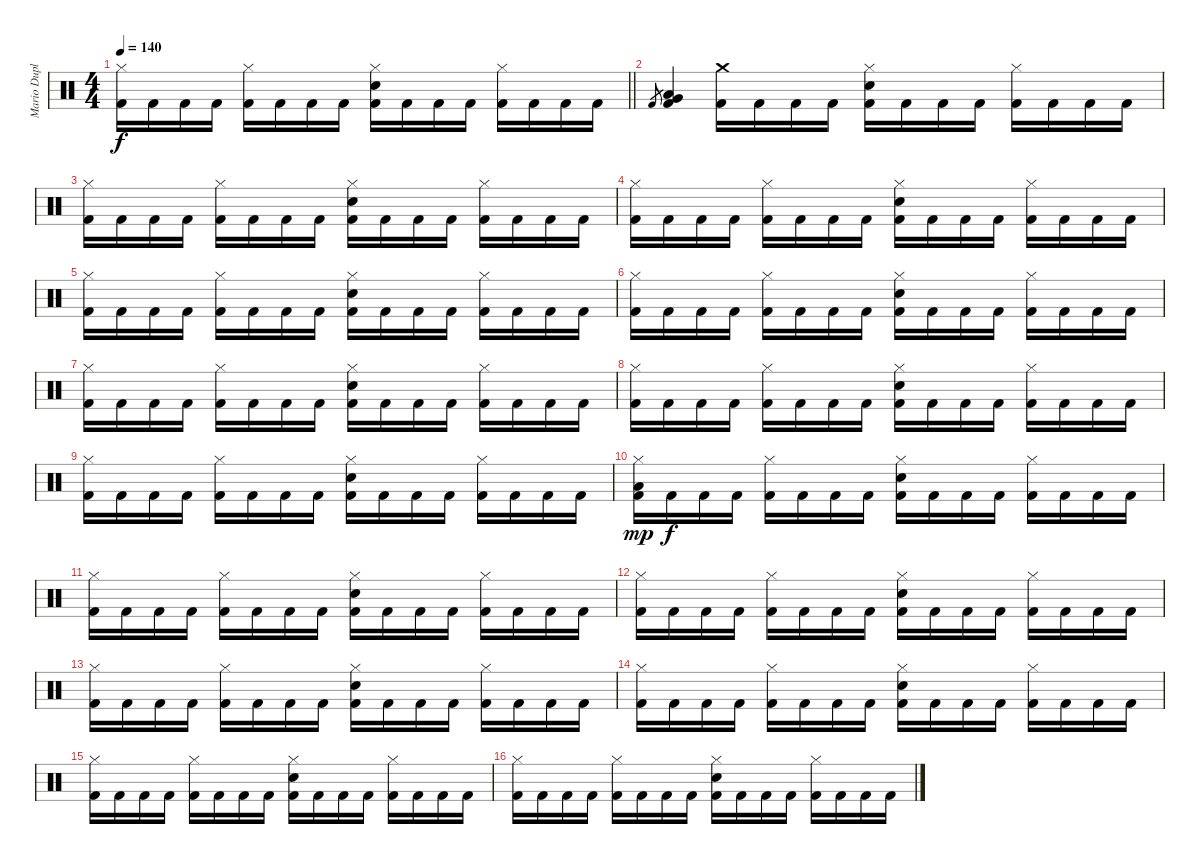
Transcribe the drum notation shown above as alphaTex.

\track ("Mario Duplantier" "Mario Dupl") {instrument percussion}
\staff {score}
\articulation defaults
\ts (4 4)
\tempo 140
\clef neutral
\barLineRight lightlight
\ks c
("Hi-Hat (closed)" "Kick (hit) 2").16{dy f} "Kick (hit) 2".16 "Kick (hit) 2".16 "Kick (hit) 2".16 ("Hi-Hat (closed)" "Kick (hit) 2").16 "Kick (hit) 2".16 "Kick (hit) 2".16 "Kick (hit) 2".16 ("Hi-Hat (closed)" "Snare (hit) 2" "Kick (hit) 2").16 "Kick (hit) 2".16 "Kick (hit) 2".16 "Kick (hit) 2".16 ("Hi-Hat (closed)" "Kick (hit) 2").16 "Kick (hit) 2".16 "Kick (hit) 2".16 "Kick (hit) 2".16 |
\section ("" "")
"Kick (hit) 2".8{gr} ("Low Floor Tom (hit)" "Very Low Tom (hit)" "Kick (hit) 2").4 ("Crash medium (hit)" "Kick (hit) 2").16 "Kick (hit) 2".16 "Kick (hit) 2".16 "Kick (hit) 2".16 ("Hi-Hat (closed)" "Snare (hit) 2" "Kick (hit) 2").16 "Kick (hit) 2".16 "Kick (hit) 2".16 "Kick (hit) 2".16 ("Hi-Hat (closed)" "Kick (hit) 2").16 "Kick (hit) 2".16 "Kick (hit) 2".16 "Kick (hit) 2".16 |
("Hi-Hat (closed)" "Kick (hit) 2").16 "Kick (hit) 2".16 "Kick (hit) 2".16 "Kick (hit) 2".16 ("Hi-Hat (closed)" "Kick (hit) 2").16 "Kick (hit) 2".16 "Kick (hit) 2".16 "Kick (hit) 2".16 ("Hi-Hat (closed)" "Snare (hit) 2" "Kick (hit) 2").16 "Kick (hit) 2".16 "Kick (hit) 2".16 "Kick (hit) 2".16 ("Hi-Hat (closed)" "Kick (hit) 2").16 "Kick (hit) 2".16 "Kick (hit) 2".16 "Kick (hit) 2".16 |
("Hi-Hat (closed)" "Kick (hit) 2").16 "Kick (hit) 2".16 "Kick (hit) 2".16 "Kick (hit) 2".16 ("Hi-Hat (closed)" "Kick (hit) 2").16 "Kick (hit) 2".16 "Kick (hit) 2".16 "Kick (hit) 2".16 ("Hi-Hat (closed)" "Snare (hit) 2" "Kick (hit) 2").16 "Kick (hit) 2".16 "Kick (hit) 2".16 "Kick (hit) 2".16 ("Hi-Hat (closed)" "Kick (hit) 2").16 "Kick (hit) 2".16 "Kick (hit) 2".16 "Kick (hit) 2".16 |
("Hi-Hat (closed)" "Kick (hit) 2").16 "Kick (hit) 2".16 "Kick (hit) 2".16 "Kick (hit) 2".16 ("Hi-Hat (closed)" "Kick (hit) 2").16 "Kick (hit) 2".16 "Kick (hit) 2".16 "Kick (hit) 2".16 ("Hi-Hat (closed)" "Snare (hit) 2" "Kick (hit) 2").16 "Kick (hit) 2".16 "Kick (hit) 2".16 "Kick (hit) 2".16 ("Hi-Hat (closed)" "Kick (hit) 2").16 "Kick (hit) 2".16 "Kick (hit) 2".16 "Kick (hit) 2".16 |
("Hi-Hat (closed)" "Kick (hit) 2").16 "Kick (hit) 2".16 "Kick (hit) 2".16 "Kick (hit) 2".16 ("Hi-Hat (closed)" "Kick (hit) 2").16 "Kick (hit) 2".16 "Kick (hit) 2".16 "Kick (hit) 2".16 ("Hi-Hat (closed)" "Snare (hit) 2" "Kick (hit) 2").16 "Kick (hit) 2".16 "Kick (hit) 2".16 "Kick (hit) 2".16 ("Hi-Hat (closed)" "Kick (hit) 2").16 "Kick (hit) 2".16 "Kick (hit) 2".16 "Kick (hit) 2".16 |
("Hi-Hat (closed)" "Kick (hit) 2").16 "Kick (hit) 2".16 "Kick (hit) 2".16 "Kick (hit) 2".16 ("Hi-Hat (closed)" "Kick (hit) 2").16 "Kick (hit) 2".16 "Kick (hit) 2".16 "Kick (hit) 2".16 ("Hi-Hat (closed)" "Snare (hit) 2" "Kick (hit) 2").16 "Kick (hit) 2".16 "Kick (hit) 2".16 "Kick (hit) 2".16 ("Hi-Hat (closed)" "Kick (hit) 2").16 "Kick (hit) 2".16 "Kick (hit) 2".16 "Kick (hit) 2".16 |
("Hi-Hat (closed)" "Kick (hit) 2").16 "Kick (hit) 2".16 "Kick (hit) 2".16 "Kick (hit) 2".16 ("Hi-Hat (closed)" "Kick (hit) 2").16 "Kick (hit) 2".16 "Kick (hit) 2".16 "Kick (hit) 2".16 ("Hi-Hat (closed)" "Snare (hit) 2" "Kick (hit) 2").16 "Kick (hit) 2".16 "Kick (hit) 2".16 "Kick (hit) 2".16 ("Hi-Hat (closed)" "Kick (hit) 2").16 "Kick (hit) 2".16 "Kick (hit) 2".16 "Kick (hit) 2".16 |
("Hi-Hat (closed)" "Kick (hit) 2").16 "Kick (hit) 2".16 "Kick (hit) 2".16 "Kick (hit) 2".16 ("Hi-Hat (closed)" "Kick (hit) 2").16 "Kick (hit) 2".16 "Kick (hit) 2".16 "Kick (hit) 2".16 ("Hi-Hat (closed)" "Snare (hit) 2" "Kick (hit) 2").16 "Kick (hit) 2".16 "Kick (hit) 2".16 "Kick (hit) 2".16 ("Hi-Hat (closed)" "Kick (hit) 2").16 "Kick (hit) 2".16 "Kick (hit) 2".16 "Kick (hit) 2".16 |
("Hi-Hat (closed)" "Low Floor Tom (hit)" "Kick (hit) 2").16{dy mp} "Kick (hit) 2".16{dy f} "Kick (hit) 2".16 "Kick (hit) 2".16 ("Hi-Hat (closed)" "Kick (hit) 2").16 "Kick (hit) 2".16 "Kick (hit) 2".16 "Kick (hit) 2".16 ("Hi-Hat (closed)" "Snare (hit) 2" "Kick (hit) 2").16 "Kick (hit) 2".16 "Kick (hit) 2".16 "Kick (hit) 2".16 ("Hi-Hat (closed)" "Kick (hit) 2").16 "Kick (hit) 2".16 "Kick (hit) 2".16 "Kick (hit) 2".16 |
("Hi-Hat (closed)" "Kick (hit) 2").16 "Kick (hit) 2".16 "Kick (hit) 2".16 "Kick (hit) 2".16 ("Hi-Hat (closed)" "Kick (hit) 2").16 "Kick (hit) 2".16 "Kick (hit) 2".16 "Kick (hit) 2".16 ("Hi-Hat (closed)" "Snare (hit) 2" "Kick (hit) 2").16 "Kick (hit) 2".16 "Kick (hit) 2".16 "Kick (hit) 2".16 ("Hi-Hat (closed)" "Kick (hit) 2").16 "Kick (hit) 2".16 "Kick (hit) 2".16 "Kick (hit) 2".16 |
("Hi-Hat (closed)" "Kick (hit) 2").16 "Kick (hit) 2".16 "Kick (hit) 2".16 "Kick (hit) 2".16 ("Hi-Hat (closed)" "Kick (hit) 2").16 "Kick (hit) 2".16 "Kick (hit) 2".16 "Kick (hit) 2".16 ("Hi-Hat (closed)" "Snare (hit) 2" "Kick (hit) 2").16 "Kick (hit) 2".16 "Kick (hit) 2".16 "Kick (hit) 2".16 ("Hi-Hat (closed)" "Kick (hit) 2").16 "Kick (hit) 2".16 "Kick (hit) 2".16 "Kick (hit) 2".16 |
("Hi-Hat (closed)" "Kick (hit) 2").16 "Kick (hit) 2".16 "Kick (hit) 2".16 "Kick (hit) 2".16 ("Hi-Hat (closed)" "Kick (hit) 2").16 "Kick (hit) 2".16 "Kick (hit) 2".16 "Kick (hit) 2".16 ("Hi-Hat (closed)" "Snare (hit) 2" "Kick (hit) 2").16 "Kick (hit) 2".16 "Kick (hit) 2".16 "Kick (hit) 2".16 ("Hi-Hat (closed)" "Kick (hit) 2").16 "Kick (hit) 2".16 "Kick (hit) 2".16 "Kick (hit) 2".16 |
("Hi-Hat (closed)" "Kick (hit) 2").16 "Kick (hit) 2".16 "Kick (hit) 2".16 "Kick (hit) 2".16 ("Hi-Hat (closed)" "Kick (hit) 2").16 "Kick (hit) 2".16 "Kick (hit) 2".16 "Kick (hit) 2".16 ("Hi-Hat (closed)" "Snare (hit) 2" "Kick (hit) 2").16 "Kick (hit) 2".16 "Kick (hit) 2".16 "Kick (hit) 2".16 ("Hi-Hat (closed)" "Kick (hit) 2").16 "Kick (hit) 2".16 "Kick (hit) 2".16 "Kick (hit) 2".16 |
("Hi-Hat (closed)" "Kick (hit) 2").16 "Kick (hit) 2".16 "Kick (hit) 2".16 "Kick (hit) 2".16 ("Hi-Hat (closed)" "Kick (hit) 2").16 "Kick (hit) 2".16 "Kick (hit) 2".16 "Kick (hit) 2".16 ("Hi-Hat (closed)" "Snare (hit) 2" "Kick (hit) 2").16 "Kick (hit) 2".16 "Kick (hit) 2".16 "Kick (hit) 2".16 ("Hi-Hat (closed)" "Kick (hit) 2").16 "Kick (hit) 2".16 "Kick (hit) 2".16 "Kick (hit) 2".16 |
("Hi-Hat (closed)" "Kick (hit) 2").16 "Kick (hit) 2".16 "Kick (hit) 2".16 "Kick (hit) 2".16 ("Hi-Hat (closed)" "Kick (hit) 2").16 "Kick (hit) 2".16 "Kick (hit) 2".16 "Kick (hit) 2".16 ("Hi-Hat (closed)" "Snare (hit) 2" "Kick (hit) 2").16 "Kick (hit) 2".16 "Kick (hit) 2".16 "Kick (hit) 2".16 ("Hi-Hat (closed)" "Kick (hit) 2").16 "Kick (hit) 2".16 "Kick (hit) 2".16 "Kick (hit) 2".16
